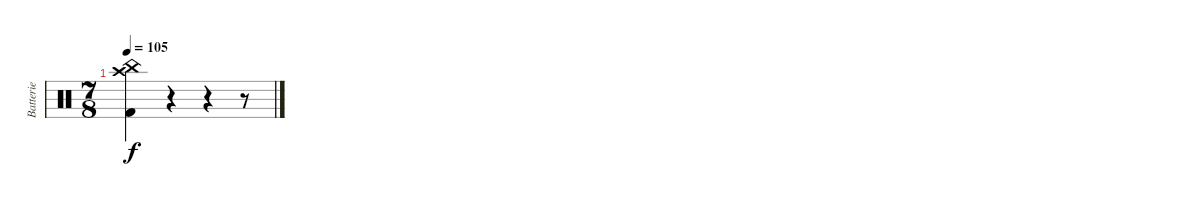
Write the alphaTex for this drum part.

\track ("Batterie" "Batterie") {instrument percussion}
\staff {score}
\articulation defaults
\ts (7 8)
\tempo 105
\clef neutral
\ks c
("Kick (hit) 2" "China (hit)" "Crash high (hit)").4{dy f} r.4 r.4 r.8
